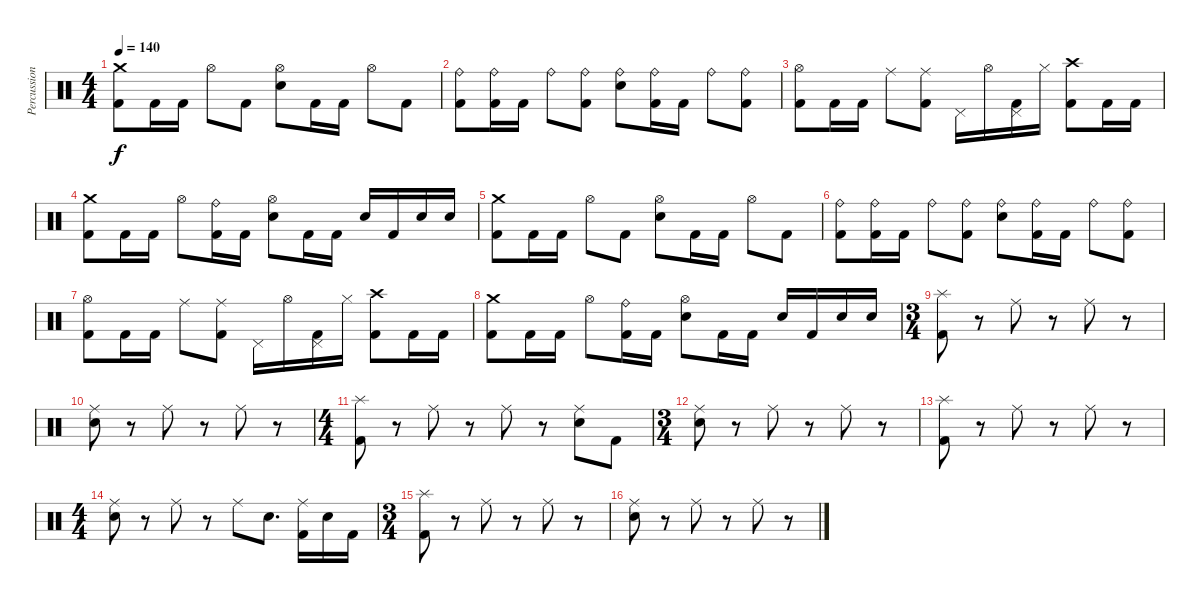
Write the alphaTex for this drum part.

\track ("Percussion" "Percussion") {instrument percussion}
\staff {score}
\articulation defaults
\ts (4 4)
\tempo 140
\clef neutral
\ks c
("Crash medium (hit)" "Kick (hit) 2").8{dy f} "Kick (hit) 2".16 "Kick (hit) 2".16 "Hi-Hat (open)".8 "Kick (hit) 2".8 ("Hi-Hat (open)" "Electric Snare (hit)").8 "Kick (hit) 2".16 "Kick (hit) 2".16 "Hi-Hat (open)".8 "Kick (hit) 2".8 |
("Ride (bell)" "Kick (hit) 2").8 ("Ride (bell)" "Kick (hit) 2").16 "Kick (hit) 2".16 "Ride (bell)".8 ("Ride (bell)" "Kick (hit) 2").8 ("Ride (bell)" "Electric Snare (hit)").8 ("Ride (bell)" "Kick (hit) 2").16 "Kick (hit) 2".16 "Ride (bell)".8 ("Ride (bell)" "Kick (hit) 2").8 |
("Hi-Hat (open)" "Kick (hit) 2").8 "Kick (hit) 2".16 "Kick (hit) 2".16 "Ride (middle)".8 ("Ride (middle)" "Kick (hit) 2").8 "Pedal Hi-Hat (hit)".16 "Hi-Hat (open)".16 ("Pedal Hi-Hat (hit)" "Kick (hit) 2").16 "Hi-Hat (closed)".16 ("Crash high (hit)" "Kick (hit) 2").8 "Kick (hit) 2".16 "Kick (hit) 2".16 |
("Crash medium (hit)" "Kick (hit) 2").8 "Kick (hit) 2".16 "Kick (hit) 2".16 "Hi-Hat (open)".8 ("Ride (bell)" "Kick (hit) 2").16 "Kick (hit) 2".16 ("Hi-Hat (open)" "Electric Snare (hit)").8 "Kick (hit) 2".16 "Kick (hit) 2".16 "Electric Snare (hit)".16 "Kick (hit) 2".16 "Electric Snare (hit)".16 "Electric Snare (hit)".16 |
("Crash medium (hit)" "Kick (hit) 2").8 "Kick (hit) 2".16 "Kick (hit) 2".16 "Hi-Hat (open)".8 "Kick (hit) 2".8 ("Hi-Hat (open)" "Electric Snare (hit)").8 "Kick (hit) 2".16 "Kick (hit) 2".16 "Hi-Hat (open)".8 "Kick (hit) 2".8 |
("Ride (bell)" "Kick (hit) 2").8 ("Ride (bell)" "Kick (hit) 2").16 "Kick (hit) 2".16 "Ride (bell)".8 ("Ride (bell)" "Kick (hit) 2").8 ("Ride (bell)" "Electric Snare (hit)").8 ("Ride (bell)" "Kick (hit) 2").16 "Kick (hit) 2".16 "Ride (bell)".8 ("Ride (bell)" "Kick (hit) 2").8 |
("Hi-Hat (open)" "Kick (hit) 2").8 "Kick (hit) 2".16 "Kick (hit) 2".16 "Ride (middle)".8 ("Ride (middle)" "Kick (hit) 2").8 "Pedal Hi-Hat (hit)".16 "Hi-Hat (open)".16 ("Pedal Hi-Hat (hit)" "Kick (hit) 2").16 "Hi-Hat (closed)".16 ("Crash high (hit)" "Kick (hit) 2").8 "Kick (hit) 2".16 "Kick (hit) 2".16 |
("Crash medium (hit)" "Kick (hit) 2").8 "Kick (hit) 2".16 "Kick (hit) 2".16 "Hi-Hat (open)".8 ("Ride (bell)" "Kick (hit) 2").16 "Kick (hit) 2".16 ("Hi-Hat (open)" "Electric Snare (hit)").8 "Kick (hit) 2".16 "Kick (hit) 2".16 "Electric Snare (hit)".16 "Kick (hit) 2".16 "Electric Snare (hit)".16 "Electric Snare (hit)".16 |
\ts (3 4)
("Splash (hit)" "Kick (hit) 2").8 r.8 "Ride (middle)".8 r.8 "Ride (middle)".8 r.8 |
("Ride (middle)" "Electric Snare (hit)").8 r.8 "Ride (middle)".8 r.8 "Ride (middle)".8 r.8 |
\ts (4 4)
("Splash (hit)" "Kick (hit) 2").8 r.8 "Ride (middle)".8 r.8 "Ride (middle)".8 r.8 ("Ride (middle)" "Electric Snare (hit)").8 "Kick (hit) 2".8 |
\ts (3 4)
("Ride (middle)" "Electric Snare (hit)").8 r.8 "Ride (middle)".8 r.8 "Ride (middle)".8 r.8 |
("Splash (hit)" "Kick (hit) 2").8 r.8 "Ride (middle)".8 r.8 "Ride (middle)".8 r.8 |
\ts (4 4)
("Ride (middle)" "Electric Snare (hit)").8 r.8 "Ride (middle)".8 r.8 "Ride (middle)".8 "Electric Snare (hit)".8{d} ("Ride (middle)" "Kick (hit) 2").16 "Electric Snare (hit)".16 "Kick (hit) 2".16 |
\ts (3 4)
("Splash (hit)" "Kick (hit) 2").8 r.8 "Ride (middle)".8 r.8 "Ride (middle)".8 r.8 |
("Ride (middle)" "Electric Snare (hit)").8 r.8 "Ride (middle)".8 r.8 "Ride (middle)".8 r.8
